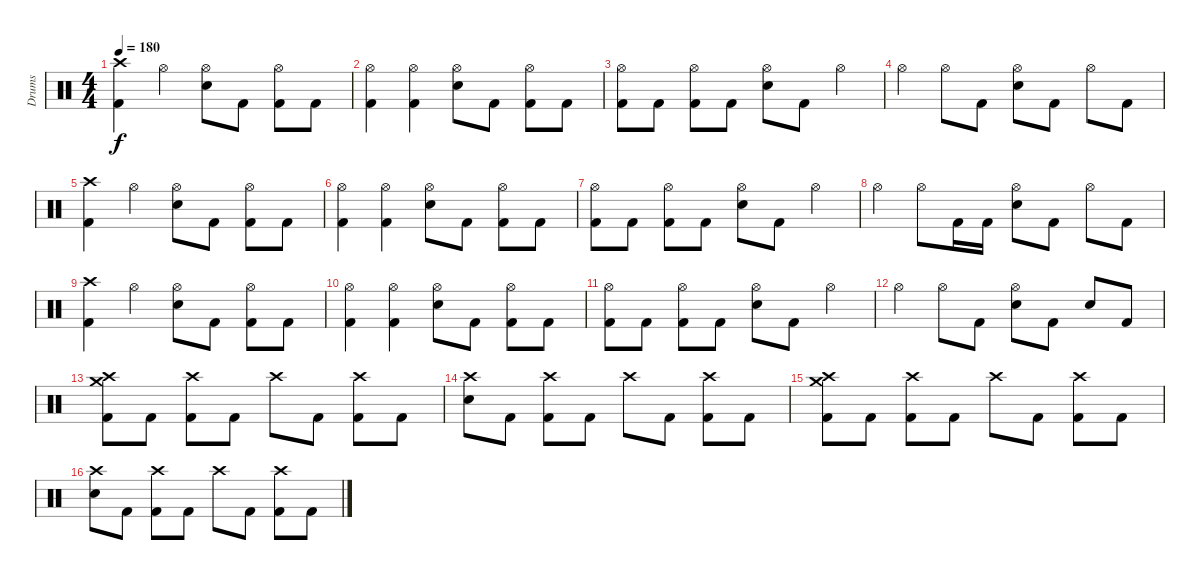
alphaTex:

\track ("Drums" "Drums") {instrument percussion}
\staff {score}
\articulation defaults
\ts (4 4)
\tempo 180
\clef neutral
\ks c
("Crash high (hit)" "Kick (hit) 2").4{dy f} "Hi-Hat (open)".4 ("Hi-Hat (open)" "Electric Snare (hit)").8 "Kick (hit) 2".8 ("Hi-Hat (open)" "Kick (hit) 2").8 "Kick (hit) 2".8 |
("Hi-Hat (open)" "Kick (hit) 2").4 ("Hi-Hat (open)" "Kick (hit) 2").4 ("Hi-Hat (open)" "Electric Snare (hit)").8 "Kick (hit) 2".8 ("Hi-Hat (open)" "Kick (hit) 2").8 "Kick (hit) 2".8 |
("Hi-Hat (open)" "Kick (hit) 2").8 "Kick (hit) 2".8 ("Hi-Hat (open)" "Kick (hit) 2").8 "Kick (hit) 2".8 ("Hi-Hat (open)" "Electric Snare (hit)").8 "Kick (hit) 2".8 "Hi-Hat (open)".4 |
"Hi-Hat (open)".4 "Hi-Hat (open)".8 "Kick (hit) 2".8 ("Hi-Hat (open)" "Electric Snare (hit)").8 "Kick (hit) 2".8 "Hi-Hat (open)".8 "Kick (hit) 2".8 |
("Crash high (hit)" "Kick (hit) 2").4 "Hi-Hat (open)".4 ("Hi-Hat (open)" "Electric Snare (hit)").8 "Kick (hit) 2".8 ("Hi-Hat (open)" "Kick (hit) 2").8 "Kick (hit) 2".8 |
("Hi-Hat (open)" "Kick (hit) 2").4 ("Hi-Hat (open)" "Kick (hit) 2").4 ("Hi-Hat (open)" "Electric Snare (hit)").8 "Kick (hit) 2".8 ("Hi-Hat (open)" "Kick (hit) 2").8 "Kick (hit) 2".8 |
("Hi-Hat (open)" "Kick (hit) 2").8 "Kick (hit) 2".8 ("Hi-Hat (open)" "Kick (hit) 2").8 "Kick (hit) 2".8 ("Hi-Hat (open)" "Electric Snare (hit)").8 "Kick (hit) 2".8 "Hi-Hat (open)".4 |
"Hi-Hat (open)".4 "Hi-Hat (open)".8 "Kick (hit) 2".16 "Kick (hit) 2".16 ("Hi-Hat (open)" "Electric Snare (hit)").8 "Kick (hit) 2".8 "Hi-Hat (open)".8 "Kick (hit) 2".8 |
("Crash high (hit)" "Kick (hit) 2").4 "Hi-Hat (open)".4 ("Hi-Hat (open)" "Electric Snare (hit)").8 "Kick (hit) 2".8 ("Hi-Hat (open)" "Kick (hit) 2").8 "Kick (hit) 2".8 |
("Hi-Hat (open)" "Kick (hit) 2").4 ("Hi-Hat (open)" "Kick (hit) 2").4 ("Hi-Hat (open)" "Electric Snare (hit)").8 "Kick (hit) 2".8 ("Hi-Hat (open)" "Kick (hit) 2").8 "Kick (hit) 2".8 |
("Hi-Hat (open)" "Kick (hit) 2").8 "Kick (hit) 2".8 ("Hi-Hat (open)" "Kick (hit) 2").8 "Kick (hit) 2".8 ("Hi-Hat (open)" "Electric Snare (hit)").8 "Kick (hit) 2".8 "Hi-Hat (open)".4 |
"Hi-Hat (open)".4 "Hi-Hat (open)".8 "Kick (hit) 2".8 ("Hi-Hat (open)" "Electric Snare (hit)").8 "Kick (hit) 2".8 "Electric Snare (hit)".8 "Kick (hit) 2".8 |
("Crash high (hit)" "Crash medium (hit)" "Kick (hit) 2").8 "Kick (hit) 2".8 ("Crash high (hit)" "Kick (hit) 2").8 "Kick (hit) 2".8 "Crash high (hit)".8 "Kick (hit) 2".8 ("Crash high (hit)" "Kick (hit) 2").8 "Kick (hit) 2".8 |
("Crash high (hit)" "Electric Snare (hit)").8 "Kick (hit) 2".8 ("Crash high (hit)" "Kick (hit) 2").8 "Kick (hit) 2".8 "Crash high (hit)".8 "Kick (hit) 2".8 ("Crash high (hit)" "Kick (hit) 2").8 "Kick (hit) 2".8 |
("Crash high (hit)" "Crash medium (hit)" "Kick (hit) 2").8 "Kick (hit) 2".8 ("Crash high (hit)" "Kick (hit) 2").8 "Kick (hit) 2".8 "Crash high (hit)".8 "Kick (hit) 2".8 ("Crash high (hit)" "Kick (hit) 2").8 "Kick (hit) 2".8 |
("Crash high (hit)" "Electric Snare (hit)").8 "Kick (hit) 2".8 ("Crash high (hit)" "Kick (hit) 2").8 "Kick (hit) 2".8 "Crash high (hit)".8 "Kick (hit) 2".8 ("Crash high (hit)" "Kick (hit) 2").8 "Kick (hit) 2".8
